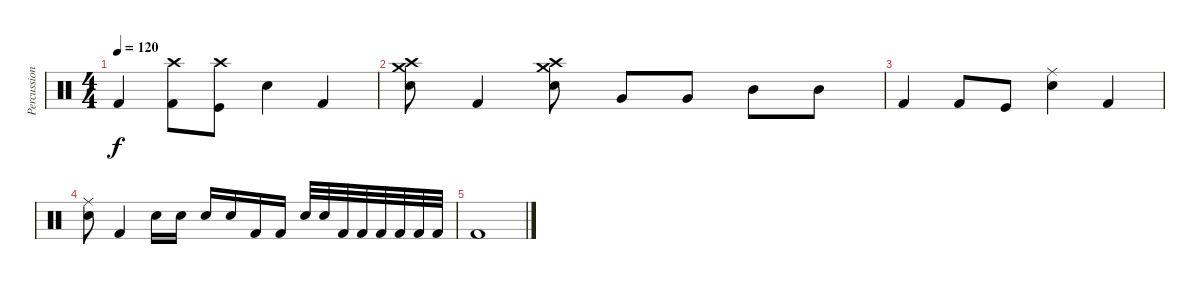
\track ("Percussion" "Percussion") {instrument percussion}
\staff {score}
\articulation defaults
\ts (4 4)
\tempo 120
\clef neutral
\ks c "Kick (hit) 2".4{dy f}
("Kick (hit) 2" "Crash high (hit)").8 ("Kick (hit)" "Crash high (hit)").8 "Snare (hit) 2".4 "Kick (hit) 2".4 |
("Crash high (hit)" "Crash medium (hit)" "Snare (hit) 2").8 "Kick (hit) 2".4 ("Crash high (hit)" "Crash medium (hit)" "Snare (hit) 2").8 "Very Low Tom (hit)".8 "Very Low Tom (hit)".8 "Mid Tom (hit)".8 "Mid Tom (hit)".8 |
"Kick (hit) 2".4 "Kick (hit) 2".8 "Kick (hit)".8 ("Ride (middle)" "Snare (hit) 2").4 "Kick (hit) 2".4 |
("Ride (middle)" "Snare (hit) 2").8 "Kick (hit) 2".4 "Snare (hit) 2".16 "Snare (hit) 2".16 "Snare (hit) 2".16 "Snare (hit) 2".16 "Kick (hit) 2".16 "Kick (hit) 2".16 "Snare (hit) 2".32 "Snare (hit) 2".32 "Kick (hit) 2".32 "Kick (hit) 2".32 "Kick (hit) 2".32 "Kick (hit) 2".32 "Kick (hit) 2".32 "Kick (hit) 2".32 |
"Kick (hit) 2".1
